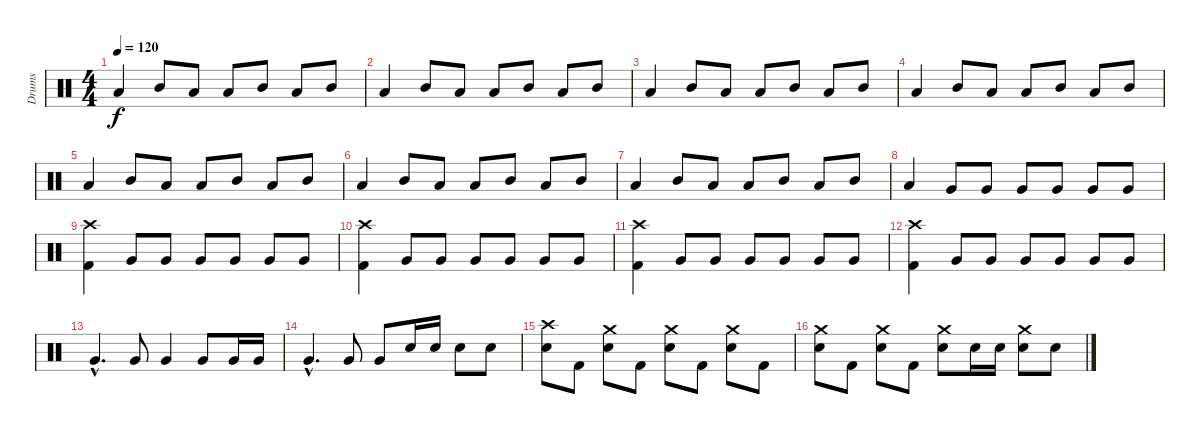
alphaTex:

\track ("Drums" "Drums") {instrument percussion}
\staff {score}
\articulation defaults
\ts (4 4)
\tempo 120
\clef neutral
\ks c "Low Floor Tom (hit)".4{dy f} "Mid Tom (hit)".8 "Low Tom (hit)".8 "Low Tom (hit)".8 "Mid Tom (hit)".8 "Low Tom (hit)".8 "Mid Tom (hit)".8
|
"Low Floor Tom (hit)".4 "Mid Tom (hit)".8 "Low Tom (hit)".8 "Low Tom (hit)".8 "Mid Tom (hit)".8 "Low Tom (hit)".8 "Mid Tom (hit)".8 |
"Low Floor Tom (hit)".4 "Mid Tom (hit)".8 "Low Tom (hit)".8 "Low Tom (hit)".8 "Mid Tom (hit)".8 "Low Tom (hit)".8 "Mid Tom (hit)".8 |
"Low Floor Tom (hit)".4 "Mid Tom (hit)".8 "Low Tom (hit)".8 "Low Tom (hit)".8 "Mid Tom (hit)".8 "Low Tom (hit)".8 "Mid Tom (hit)".8 |
"Low Floor Tom (hit)".4 "Mid Tom (hit)".8 "Low Tom (hit)".8 "Low Tom (hit)".8 "Mid Tom (hit)".8 "Low Tom (hit)".8 "Mid Tom (hit)".8 |
"Low Floor Tom (hit)".4 "Mid Tom (hit)".8 "Low Tom (hit)".8 "Low Tom (hit)".8 "Mid Tom (hit)".8 "Low Tom (hit)".8 "Mid Tom (hit)".8 |
"Low Floor Tom (hit)".4 "Mid Tom (hit)".8 "Low Tom (hit)".8 "Low Tom (hit)".8 "Mid Tom (hit)".8 "Low Tom (hit)".8 "Mid Tom (hit)".8 |
"Low Floor Tom (hit)".4 "Very Low Tom (hit)".8 "Very Low Tom (hit)".8 "Very Low Tom (hit)".8 "Very Low Tom (hit)".8 "Very Low Tom (hit)".8 "Very Low Tom (hit)".8 |
("Crash high (hit)" "Kick (hit) 2").4 "Very Low Tom (hit)".8 "Very Low Tom (hit)".8 "Very Low Tom (hit)".8 "Very Low Tom (hit)".8 "Very Low Tom (hit)".8 "Very Low Tom (hit)".8 |
("Crash high (hit)" "Kick (hit) 2").4 "Very Low Tom (hit)".8 "Very Low Tom (hit)".8 "Very Low Tom (hit)".8 "Very Low Tom (hit)".8 "Very Low Tom (hit)".8 "Very Low Tom (hit)".8 |
("Crash high (hit)" "Kick (hit) 2").4 "Very Low Tom (hit)".8 "Very Low Tom (hit)".8 "Very Low Tom (hit)".8 "Very Low Tom (hit)".8 "Very Low Tom (hit)".8 "Very Low Tom (hit)".8 |
("Crash high (hit)" "Kick (hit) 2").4 "Very Low Tom (hit)".8 "Very Low Tom (hit)".8 "Very Low Tom (hit)".8 "Very Low Tom (hit)".8 "Very Low Tom (hit)".8 "Very Low Tom (hit)".8 |
"Very Low Tom (hit)"{hac}.4{d} "Very Low Tom (hit)".8 "Very Low Tom (hit)".4 "Very Low Tom (hit)".8 "Very Low Tom (hit)".16 "Very Low Tom (hit)".16 |
"Very Low Tom (hit)"{hac}.4{d} "Very Low Tom (hit)".8 "Very Low Tom (hit)".8 "Electric Snare (hit)".16 "Electric Snare (hit)".16 "Electric Snare (hit)".8 "Electric Snare (hit)".8 |
("Crash high (hit)" "Electric Snare (hit)").8 "Kick (hit) 2".8 ("Crash medium (hit)" "Electric Snare (hit)").8 "Kick (hit) 2".8 ("Crash medium (hit)" "Electric Snare (hit)").8 "Kick (hit) 2".8 ("Crash medium (hit)" "Electric Snare (hit)").8 "Kick (hit) 2".8 |
("Crash medium (hit)" "Electric Snare (hit)").8 "Kick (hit) 2".8 ("Crash medium (hit)" "Electric Snare (hit)").8 "Kick (hit) 2".8 ("Crash medium (hit)" "Electric Snare (hit)").8 "Electric Snare (hit)".16 "Electric Snare (hit)".16 ("Crash medium (hit)" "Electric Snare (hit)").8 "Electric Snare (hit)".8
